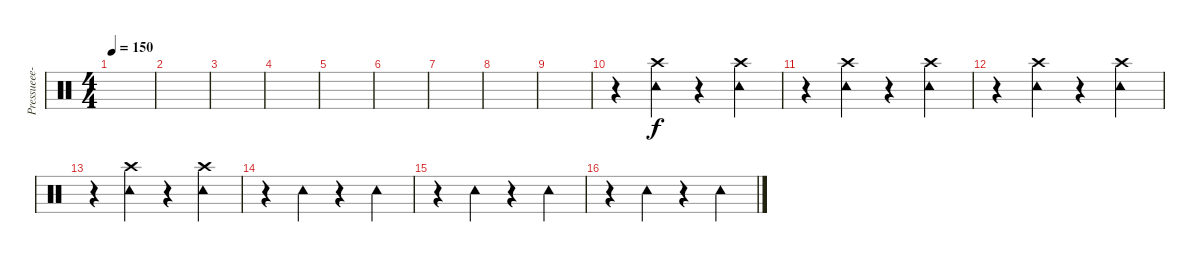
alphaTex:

\track ("" "Pressueee-") {instrument percussion}
\staff {score}
\articulation defaults
\ts (4 4)
\tempo 150
\clef neutral
\ks c
|
|
|
|
|
|
|
|
|
r.4 ("Crash high (hit)" "Tambourine (hit)").4 r.4 ("Crash high (hit)" "Tambourine (hit)").4 |
r.4 ("Crash high (hit)" "Tambourine (hit)").4 r.4 ("Crash high (hit)" "Tambourine (hit)").4 |
r.4 ("Crash high (hit)" "Tambourine (hit)").4 r.4 ("Crash high (hit)" "Tambourine (hit)").4 |
r.4 ("Crash high (hit)" "Tambourine (hit)").4 r.4 ("Crash high (hit)" "Tambourine (hit)").4 |
r.4 "Tambourine (hit)".4 r.4 "Tambourine (hit)".4 |
r.4 "Tambourine (hit)".4 r.4 "Tambourine (hit)".4 |
r.4 "Tambourine (hit)".4 r.4 "Tambourine (hit)".4
